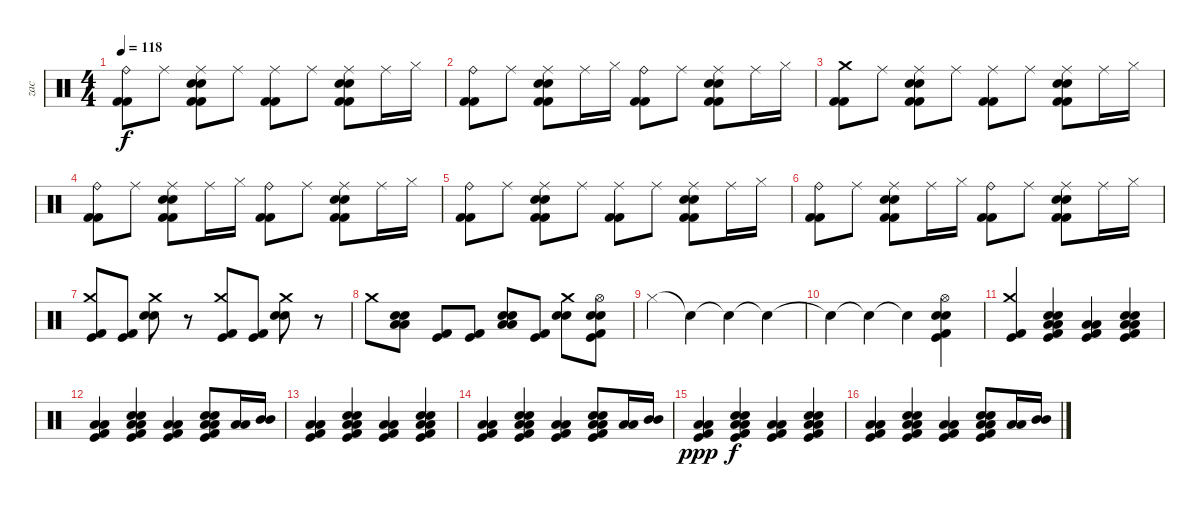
\track ("zac" "zac") {instrument percussion}
\staff {score}
\articulation defaults
\ts (4 4)
\tempo 118
\clef neutral
\ks c
("Ride (bell)" "Kick (hit) 2" "Kick (hit) 2").8{dy f} "Ride (middle)".8 ("Electric Snare (hit)" "Ride (middle)" "Electric Snare (hit)" "Kick (hit) 2" "Kick (hit) 2").8 "Ride (middle)".8 ("Ride (middle)" "Kick (hit) 2" "Kick (hit) 2").8 "Ride (middle)".8 ("Electric Snare (hit)" "Ride (middle)" "Electric Snare (hit)" "Kick (hit) 2" "Kick (hit) 2").8 "Ride (middle)".16 "Hi-Hat (closed)".16 |
("Ride (bell)" "Kick (hit) 2" "Kick (hit) 2").8 "Ride (middle)".8 ("Electric Snare (hit)" "Ride (middle)" "Electric Snare (hit)" "Kick (hit) 2" "Kick (hit) 2").8 "Ride (middle)".16 "Hi-Hat (closed)".16 ("Ride (bell)" "Kick (hit) 2" "Kick (hit) 2").8 "Ride (middle)".8 ("Electric Snare (hit)" "Ride (middle)" "Electric Snare (hit)" "Kick (hit) 2" "Kick (hit) 2").8 "Ride (middle)".16 "Hi-Hat (closed)".16 |
("Crash medium (hit)" "Kick (hit) 2" "Kick (hit) 2").8 "Ride (middle)".8 ("Electric Snare (hit)" "Ride (middle)" "Electric Snare (hit)" "Kick (hit) 2" "Kick (hit) 2").8 "Ride (middle)".8 ("Ride (middle)" "Kick (hit) 2" "Kick (hit) 2").8 "Ride (middle)".8 ("Electric Snare (hit)" "Ride (middle)" "Electric Snare (hit)" "Kick (hit) 2" "Kick (hit) 2").8 "Ride (middle)".16 "Hi-Hat (closed)".16 |
("Ride (bell)" "Kick (hit) 2" "Kick (hit) 2").8 "Ride (middle)".8 ("Electric Snare (hit)" "Ride (middle)" "Electric Snare (hit)" "Kick (hit) 2" "Kick (hit) 2").8 "Ride (middle)".16 "Hi-Hat (closed)".16 ("Ride (bell)" "Kick (hit) 2" "Kick (hit) 2").8 "Ride (middle)".8 ("Electric Snare (hit)" "Ride (middle)" "Electric Snare (hit)" "Kick (hit) 2" "Kick (hit) 2").8 "Ride (middle)".16 "Hi-Hat (closed)".16 |
("Ride (bell)" "Kick (hit) 2" "Kick (hit) 2").8 "Ride (middle)".8 ("Electric Snare (hit)" "Ride (middle)" "Electric Snare (hit)" "Kick (hit) 2" "Kick (hit) 2").8 "Ride (middle)".8 ("Ride (middle)" "Kick (hit) 2" "Kick (hit) 2").8 "Ride (middle)".8 ("Electric Snare (hit)" "Ride (middle)" "Electric Snare (hit)" "Kick (hit) 2" "Kick (hit) 2").8 "Ride (middle)".16 "Hi-Hat (closed)".16 |
("Ride (bell)" "Kick (hit) 2" "Kick (hit) 2").8 "Ride (middle)".8 ("Electric Snare (hit)" "Ride (middle)" "Electric Snare (hit)" "Kick (hit) 2" "Kick (hit) 2").8 "Ride (middle)".16 "Hi-Hat (closed)".16 ("Ride (bell)" "Kick (hit) 2" "Kick (hit) 2").8 "Ride (middle)".8 ("Electric Snare (hit)" "Ride (middle)" "Electric Snare (hit)" "Kick (hit) 2" "Kick (hit) 2").8 "Ride (middle)".16 "Hi-Hat (closed)".16 |
("Crash medium (hit)" "Kick (hit)" "Kick (hit) 2").8 ("Kick (hit)" "Kick (hit) 2").8 ("Crash medium (hit)" "Electric Snare (hit)" "Electric Snare (hit)").8 r.8 ("Crash medium (hit)" "Kick (hit)" "Kick (hit) 2").8 ("Kick (hit)" "Kick (hit) 2").8 ("Crash medium (hit)" "Electric Snare (hit)" "Electric Snare (hit)").8 r.8 |
"Crash medium (hit)".8 ("Low Tom (hit)" "Low Tom (hit)" "Electric Snare (hit)" "Electric Snare (hit)").8 ("Kick (hit)" "Kick (hit) 2").8 ("Kick (hit)" "Kick (hit) 2").8 ("Low Tom (hit)" "Low Tom (hit)" "Electric Snare (hit)" "Electric Snare (hit)").8 ("Kick (hit)" "Kick (hit) 2").8 ("Crash medium (hit)" "Electric Snare (hit)" "Electric Snare (hit)").8 ("Hi-Hat (open)" "Electric Snare (hit)" "Electric Snare (hit)" "Kick (hit)" "Kick (hit) 2").8 |
"Hi-Hat (closed)".4 "Snare (hit)"{t}.4 "Snare (hit)"{t}.4 "Snare (hit)"{t}.4 |
"Snare (hit)"{t}.4 "Snare (hit)"{t}.4 "Snare (hit)"{t}.4 ("Hi-Hat (open)" "Electric Snare (hit)" "Electric Snare (hit)" "Kick (hit)" "Kick (hit) 2").4 |
("Crash medium (hit)" "Kick (hit)" "Kick (hit) 2").4 ("Low Tom (hit)" "Low Tom (hit)" "Electric Snare (hit)" "Electric Snare (hit)" "Kick (hit)" "Kick (hit) 2").4 ("Low Tom (hit)" "Low Tom (hit)" "Kick (hit)" "Kick (hit) 2").4 ("Low Tom (hit)" "Low Tom (hit)" "Electric Snare (hit)" "Electric Snare (hit)" "Kick (hit) 2" "Kick (hit)").4 |
("Low Tom (hit)" "Low Tom (hit)" "Kick (hit)" "Kick (hit) 2").4 ("Low Tom (hit)" "Low Tom (hit)" "Electric Snare (hit)" "Electric Snare (hit)" "Kick (hit)" "Kick (hit) 2").4 ("Low Tom (hit)" "Low Tom (hit)" "Kick (hit)" "Kick (hit) 2").4 ("Low Tom (hit)" "Low Tom (hit)" "Electric Snare (hit)" "Electric Snare (hit)" "Kick (hit) 2" "Kick (hit)").8 ("Low Tom (hit)" "Low Tom (hit)").16 ("Mid Tom (hit)" "Mid Tom (hit)").16 |
("Low Tom (hit)" "Low Tom (hit)" "Kick (hit)" "Kick (hit) 2").4 ("Low Tom (hit)" "Low Tom (hit)" "Electric Snare (hit)" "Electric Snare (hit)" "Kick (hit)" "Kick (hit) 2").4 ("Low Tom (hit)" "Low Tom (hit)" "Kick (hit)" "Kick (hit) 2").4 ("Low Tom (hit)" "Low Tom (hit)" "Electric Snare (hit)" "Electric Snare (hit)" "Kick (hit) 2" "Kick (hit)").4 |
("Low Tom (hit)" "Low Tom (hit)" "Kick (hit)" "Kick (hit) 2").4 ("Low Tom (hit)" "Low Tom (hit)" "Electric Snare (hit)" "Electric Snare (hit)" "Kick (hit)" "Kick (hit) 2").4 ("Low Tom (hit)" "Low Tom (hit)" "Kick (hit)" "Kick (hit) 2").4 ("Low Tom (hit)" "Low Tom (hit)" "Electric Snare (hit)" "Electric Snare (hit)" "Kick (hit) 2" "Kick (hit)").8 ("Low Tom (hit)" "Low Tom (hit)").16 ("Mid Tom (hit)" "Mid Tom (hit)").16 |
("Low Tom (hit)" "Low Tom (hit)" "Kick (hit)" "Kick (hit) 2").4{dy ppp} ("Low Tom (hit)" "Low Tom (hit)" "Electric Snare (hit)" "Electric Snare (hit)" "Kick (hit)" "Kick (hit) 2").4{dy f} ("Low Tom (hit)" "Low Tom (hit)" "Kick (hit)" "Kick (hit) 2").4 ("Low Tom (hit)" "Low Tom (hit)" "Electric Snare (hit)" "Electric Snare (hit)" "Kick (hit) 2" "Kick (hit)").4 |
("Low Tom (hit)" "Low Tom (hit)" "Kick (hit)" "Kick (hit) 2").4 ("Low Tom (hit)" "Low Tom (hit)" "Electric Snare (hit)" "Electric Snare (hit)" "Kick (hit)" "Kick (hit) 2").4 ("Low Tom (hit)" "Low Tom (hit)" "Kick (hit)" "Kick (hit) 2").4 ("Low Tom (hit)" "Low Tom (hit)" "Electric Snare (hit)" "Electric Snare (hit)" "Kick (hit) 2" "Kick (hit)").8 ("Low Tom (hit)" "Low Tom (hit)").16 ("Mid Tom (hit)" "Mid Tom (hit)").16
